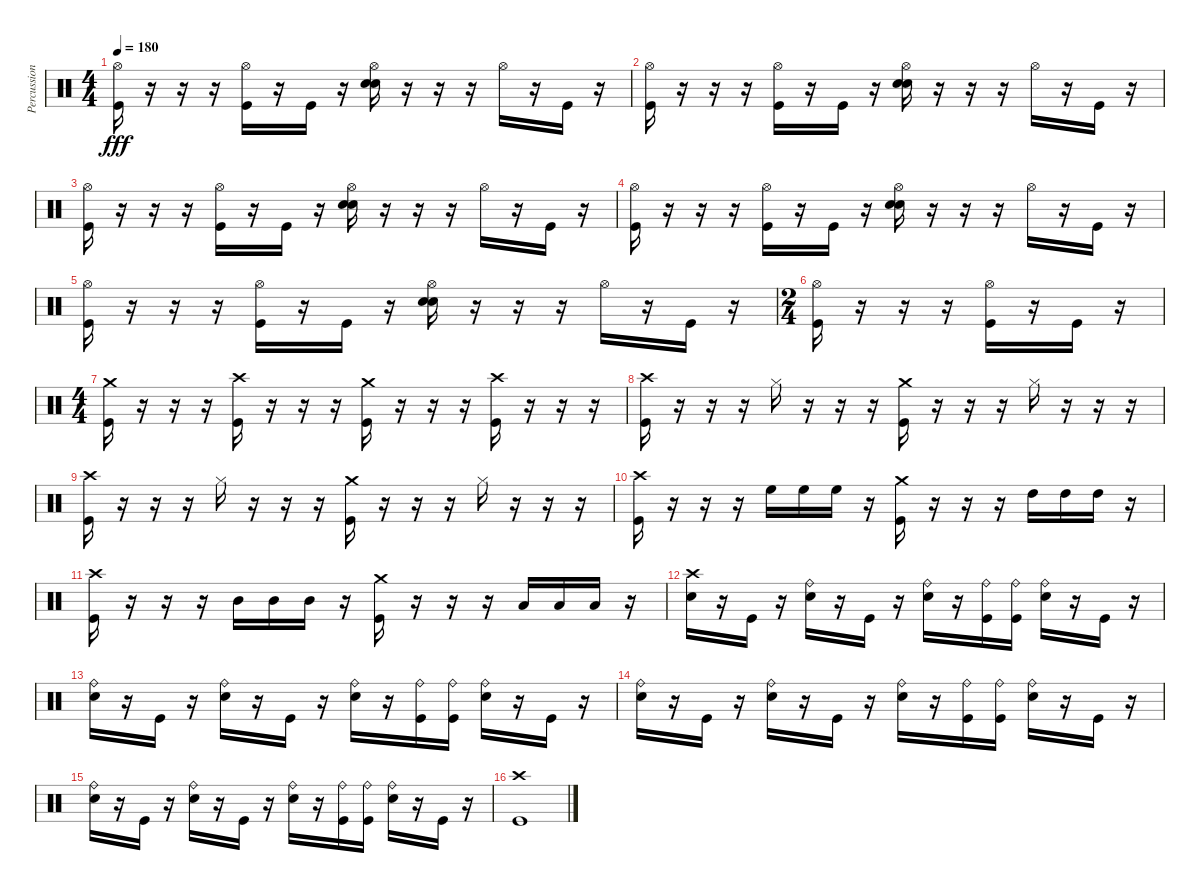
\track ("Percussion" "Percussion") {instrument percussion}
\staff {score}
\articulation defaults
\ts (4 4)
\tempo 180
\clef neutral
\ks c
("Hi-Hat (open)" "Kick (hit)").16{dy fff} r.16 r.16 r.16 ("Hi-Hat (open)" "Kick (hit)").16 r.16 "Kick (hit)".16 r.16 ("Hi-Hat (open)" "Snare (hit) 2" "Electric Snare (hit)").16 r.16 r.16 r.16 "Hi-Hat (open)".16 r.16 "Kick (hit)".16 r.16 |
("Hi-Hat (open)" "Kick (hit)").16 r.16 r.16 r.16 ("Hi-Hat (open)" "Kick (hit)").16 r.16 "Kick (hit)".16 r.16 ("Hi-Hat (open)" "Snare (hit) 2" "Electric Snare (hit)").16 r.16 r.16 r.16 "Hi-Hat (open)".16 r.16 "Kick (hit)".16 r.16 |
("Hi-Hat (open)" "Kick (hit)").16 r.16 r.16 r.16 ("Hi-Hat (open)" "Kick (hit)").16 r.16 "Kick (hit)".16 r.16 ("Hi-Hat (open)" "Snare (hit) 2" "Electric Snare (hit)").16 r.16 r.16 r.16 "Hi-Hat (open)".16 r.16 "Kick (hit)".16 r.16 |
("Hi-Hat (open)" "Kick (hit)").16 r.16 r.16 r.16 ("Hi-Hat (open)" "Kick (hit)").16 r.16 "Kick (hit)".16 r.16 ("Hi-Hat (open)" "Snare (hit) 2" "Electric Snare (hit)").16 r.16 r.16 r.16 "Hi-Hat (open)".16 r.16 "Kick (hit)".16 r.16 |
("Hi-Hat (open)" "Kick (hit)").16 r.16 r.16 r.16 ("Hi-Hat (open)" "Kick (hit)").16 r.16 "Kick (hit)".16 r.16 ("Hi-Hat (open)" "Snare (hit) 2" "Electric Snare (hit)").16 r.16 r.16 r.16 "Hi-Hat (open)".16 r.16 "Kick (hit)".16 r.16 |
\ts (2 4)
("Hi-Hat (open)" "Kick (hit)").16 r.16 r.16 r.16 ("Hi-Hat (open)" "Kick (hit)").16 r.16 "Kick (hit)".16 r.16 |
\ts (4 4)
("Crash medium (hit)" "Kick (hit)").16 r.16 r.16 r.16 ("Crash high (hit)" "Kick (hit)").16 r.16 r.16 r.16 ("Crash medium (hit)" "Kick (hit)").16 r.16 r.16 r.16 ("Crash high (hit)" "Kick (hit)").16 r.16 r.16 r.16 |
("Crash high (hit)" "Kick (hit)").16 r.16 r.16 r.16 "Hi-Hat (closed)".16 r.16 r.16 r.16 ("Crash medium (hit)" "Kick (hit)").16 r.16 r.16 r.16 "Hi-Hat (closed)".16 r.16 r.16 r.16 |
("Crash high (hit)" "Kick (hit)").16 r.16 r.16 r.16 "Hi-Hat (closed)".16 r.16 r.16 r.16 ("Crash medium (hit)" "Kick (hit)").16 r.16 r.16 r.16 "Hi-Hat (closed)".16 r.16 r.16 r.16 |
("Crash high (hit)" "Kick (hit)").16 r.16 r.16 r.16 "High Floor Tom (hit)".16 "High Floor Tom (hit)".16 "High Floor Tom (hit)".16 r.16 ("Crash medium (hit)" "Kick (hit)").16 r.16 r.16 r.16 "High Tom (hit)".16 "High Tom (hit)".16 "High Tom (hit)".16 r.16 |
("Crash high (hit)" "Kick (hit)").16 r.16 r.16 r.16 "Mid Tom (hit)".16 "Mid Tom (hit)".16 "Mid Tom (hit)".16 r.16 ("Crash medium (hit)" "Kick (hit)").16 r.16 r.16 r.16 "Low Tom (hit)".16 "Low Tom (hit)".16 "Low Tom (hit)".16 r.16 |
("Crash high (hit)" "Electric Snare (hit)").16 r.16 "Kick (hit)".16 r.16 ("Ride (bell)" "Electric Snare (hit)").16 r.16 "Kick (hit)".16 r.16 ("Ride (bell)" "Electric Snare (hit)").16 r.16 ("Ride (bell)" "Kick (hit)").16 ("Ride (bell)" "Kick (hit)").16 ("Ride (bell)" "Electric Snare (hit)").16 r.16 "Kick (hit)".16 r.16 |
("Ride (bell)" "Electric Snare (hit)").16 r.16 "Kick (hit)".16 r.16 ("Ride (bell)" "Electric Snare (hit)").16 r.16 "Kick (hit)".16 r.16 ("Ride (bell)" "Electric Snare (hit)").16 r.16 ("Ride (bell)" "Kick (hit)").16 ("Ride (bell)" "Kick (hit)").16 ("Ride (bell)" "Electric Snare (hit)").16 r.16 "Kick (hit)".16 r.16 |
("Ride (bell)" "Electric Snare (hit)").16 r.16 "Kick (hit)".16 r.16 ("Ride (bell)" "Electric Snare (hit)").16 r.16 "Kick (hit)".16 r.16 ("Ride (bell)" "Electric Snare (hit)").16 r.16 ("Ride (bell)" "Kick (hit)").16 ("Ride (bell)" "Kick (hit)").16 ("Ride (bell)" "Electric Snare (hit)").16 r.16 "Kick (hit)".16 r.16 |
("Ride (bell)" "Electric Snare (hit)").16 r.16 "Kick (hit)".16 r.16 ("Ride (bell)" "Electric Snare (hit)").16 r.16 "Kick (hit)".16 r.16 ("Ride (bell)" "Electric Snare (hit)").16 r.16 ("Ride (bell)" "Kick (hit)").16 ("Ride (bell)" "Kick (hit)").16 ("Ride (bell)" "Electric Snare (hit)").16 r.16 "Kick (hit)".16 r.16 |
("Crash high (hit)" "Kick (hit)").1
